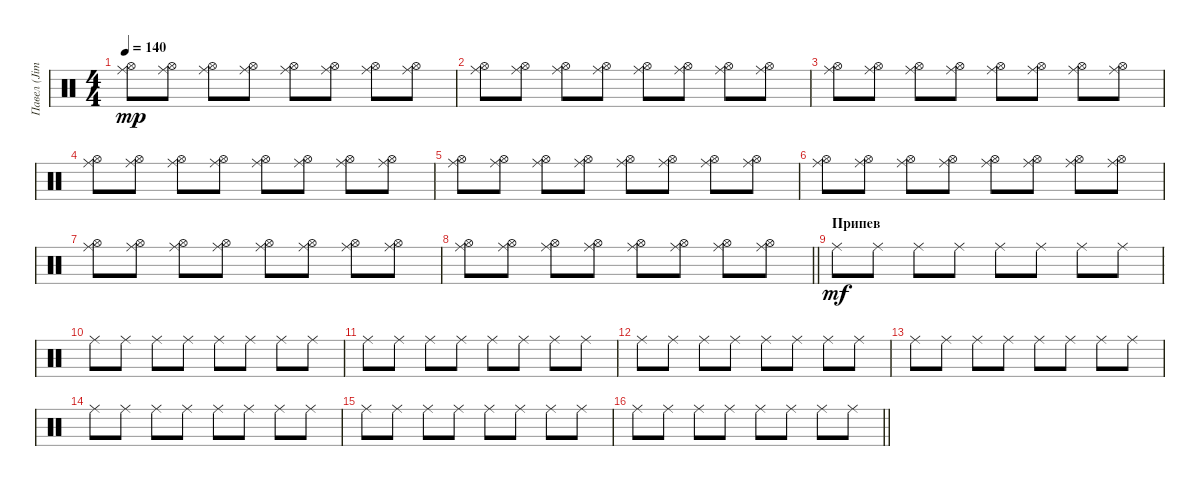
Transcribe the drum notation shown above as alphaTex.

\track ("Павел (Jimmy) Лохнин" "Павел (Jim") {instrument percussion}
\staff {score}
\articulation defaults
\ts (4 4)
\tempo 140
\clef neutral
\ks c
("Ride (middle)" "Hi-Hat (open)").8{dy mp} ("Ride (middle)" "Hi-Hat (open)").8 ("Ride (middle)" "Hi-Hat (open)").8 ("Ride (middle)" "Hi-Hat (open)").8 ("Ride (middle)" "Hi-Hat (open)").8 ("Ride (middle)" "Hi-Hat (open)").8 ("Ride (middle)" "Hi-Hat (open)").8 ("Ride (middle)" "Hi-Hat (open)").8 |
("Ride (middle)" "Hi-Hat (open)").8 ("Ride (middle)" "Hi-Hat (open)").8 ("Ride (middle)" "Hi-Hat (open)").8 ("Ride (middle)" "Hi-Hat (open)").8 ("Ride (middle)" "Hi-Hat (open)").8 ("Ride (middle)" "Hi-Hat (open)").8 ("Ride (middle)" "Hi-Hat (open)").8 ("Ride (middle)" "Hi-Hat (open)").8 |
("Ride (middle)" "Hi-Hat (open)").8 ("Ride (middle)" "Hi-Hat (open)").8 ("Ride (middle)" "Hi-Hat (open)").8 ("Ride (middle)" "Hi-Hat (open)").8 ("Ride (middle)" "Hi-Hat (open)").8 ("Ride (middle)" "Hi-Hat (open)").8 ("Ride (middle)" "Hi-Hat (open)").8 ("Ride (middle)" "Hi-Hat (open)").8 |
("Ride (middle)" "Hi-Hat (open)").8 ("Ride (middle)" "Hi-Hat (open)").8 ("Ride (middle)" "Hi-Hat (open)").8 ("Ride (middle)" "Hi-Hat (open)").8 ("Ride (middle)" "Hi-Hat (open)").8 ("Ride (middle)" "Hi-Hat (open)").8 ("Ride (middle)" "Hi-Hat (open)").8 ("Ride (middle)" "Hi-Hat (open)").8 |
("Ride (middle)" "Hi-Hat (open)").8 ("Ride (middle)" "Hi-Hat (open)").8 ("Ride (middle)" "Hi-Hat (open)").8 ("Ride (middle)" "Hi-Hat (open)").8 ("Ride (middle)" "Hi-Hat (open)").8 ("Ride (middle)" "Hi-Hat (open)").8 ("Ride (middle)" "Hi-Hat (open)").8 ("Ride (middle)" "Hi-Hat (open)").8 |
("Ride (middle)" "Hi-Hat (open)").8 ("Ride (middle)" "Hi-Hat (open)").8 ("Ride (middle)" "Hi-Hat (open)").8 ("Ride (middle)" "Hi-Hat (open)").8 ("Ride (middle)" "Hi-Hat (open)").8 ("Ride (middle)" "Hi-Hat (open)").8 ("Ride (middle)" "Hi-Hat (open)").8 ("Ride (middle)" "Hi-Hat (open)").8 |
("Ride (middle)" "Hi-Hat (open)").8 ("Ride (middle)" "Hi-Hat (open)").8 ("Ride (middle)" "Hi-Hat (open)").8 ("Ride (middle)" "Hi-Hat (open)").8 ("Ride (middle)" "Hi-Hat (open)").8 ("Ride (middle)" "Hi-Hat (open)").8 ("Ride (middle)" "Hi-Hat (open)").8 ("Ride (middle)" "Hi-Hat (open)").8 |
\barLineRight lightlight
("Ride (middle)" "Hi-Hat (open)").8 ("Ride (middle)" "Hi-Hat (open)").8 ("Ride (middle)" "Hi-Hat (open)").8 ("Ride (middle)" "Hi-Hat (open)").8 ("Ride (middle)" "Hi-Hat (open)").8 ("Ride (middle)" "Hi-Hat (open)").8 ("Ride (middle)" "Hi-Hat (open)").8 ("Ride (middle)" "Hi-Hat (open)").8 |
\section ("" "Припев")
"Ride (middle)".8{dy mf} "Ride (middle)".8 "Ride (middle)".8 "Ride (middle)".8 "Ride (middle)".8 "Ride (middle)".8 "Ride (middle)".8 "Ride (middle)".8 |
"Ride (middle)".8 "Ride (middle)".8 "Ride (middle)".8 "Ride (middle)".8 "Ride (middle)".8 "Ride (middle)".8 "Ride (middle)".8 "Ride (middle)".8 |
"Ride (middle)".8 "Ride (middle)".8 "Ride (middle)".8 "Ride (middle)".8 "Ride (middle)".8 "Ride (middle)".8 "Ride (middle)".8 "Ride (middle)".8 |
"Ride (middle)".8 "Ride (middle)".8 "Ride (middle)".8 "Ride (middle)".8 "Ride (middle)".8 "Ride (middle)".8 "Ride (middle)".8 "Ride (middle)".8 |
"Ride (middle)".8 "Ride (middle)".8 "Ride (middle)".8 "Ride (middle)".8 "Ride (middle)".8 "Ride (middle)".8 "Ride (middle)".8 "Ride (middle)".8 |
"Ride (middle)".8 "Ride (middle)".8 "Ride (middle)".8 "Ride (middle)".8 "Ride (middle)".8 "Ride (middle)".8 "Ride (middle)".8 "Ride (middle)".8 |
"Ride (middle)".8 "Ride (middle)".8 "Ride (middle)".8 "Ride (middle)".8 "Ride (middle)".8 "Ride (middle)".8 "Ride (middle)".8 "Ride (middle)".8 |
\barLineRight lightlight "Ride (middle)".8 "Ride (middle)".8 "Ride (middle)".8 "Ride (middle)".8 "Ride (middle)".8 "Ride (middle)".8 "Ride (middle)".8 "Ride (middle)".8
